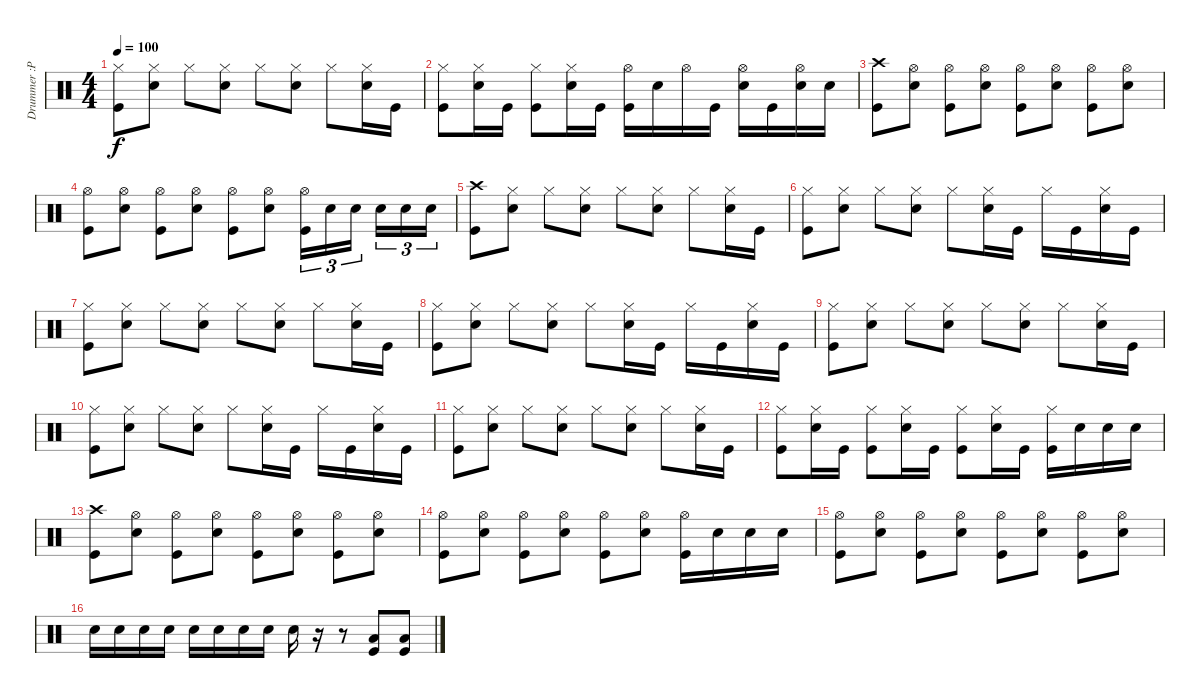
\track ("Drummer :P" "Drummer :P") {instrument percussion}
\staff {score}
\articulation defaults
\ts (4 4)
\tempo 100
\clef neutral
\ks c
("Hi-Hat (closed)" "Kick (hit)").8{dy f} ("Hi-Hat (closed)" "Electric Snare (hit)").8 "Hi-Hat (closed)".8 ("Hi-Hat (closed)" "Electric Snare (hit)").8 "Hi-Hat (closed)".8 ("Hi-Hat (closed)" "Electric Snare (hit)").8 "Hi-Hat (closed)".8 ("Hi-Hat (closed)" "Electric Snare (hit)").16 "Kick (hit)".16 |
("Hi-Hat (closed)" "Kick (hit)").8 ("Hi-Hat (closed)" "Electric Snare (hit)").16 "Kick (hit)".16 ("Hi-Hat (closed)" "Kick (hit)").8 ("Hi-Hat (closed)" "Electric Snare (hit)").16 "Kick (hit)".16 ("Hi-Hat (open)" "Kick (hit)").16 "Electric Snare (hit)".16 "Hi-Hat (open)".16 "Kick (hit)".16 ("Hi-Hat (open)" "Electric Snare (hit)").16 "Kick (hit)".16 ("Hi-Hat (open)" "Electric Snare (hit)").16 "Electric Snare (hit)".16 |
("Crash high (hit)" "Kick (hit)").8 ("Hi-Hat (open)" "Electric Snare (hit)").8 ("Hi-Hat (open)" "Kick (hit)").8 ("Hi-Hat (open)" "Electric Snare (hit)").8 ("Hi-Hat (open)" "Kick (hit)").8 ("Hi-Hat (open)" "Electric Snare (hit)").8 ("Hi-Hat (open)" "Kick (hit)").8 ("Hi-Hat (open)" "Electric Snare (hit)").8 |
("Hi-Hat (open)" "Kick (hit)").8 ("Hi-Hat (open)" "Electric Snare (hit)").8 ("Hi-Hat (open)" "Kick (hit)").8 ("Hi-Hat (open)" "Electric Snare (hit)").8 ("Hi-Hat (open)" "Kick (hit)").8 ("Hi-Hat (open)" "Electric Snare (hit)").8 ("Hi-Hat (open)" "Kick (hit)").16{tu (3 2)} "Electric Snare (hit)".16{tu (3 2)} "Electric Snare (hit)".16{tu (3 2)} "Electric Snare (hit)".16{tu (3 2)} "Electric Snare (hit)".16{tu (3 2)} "Electric Snare (hit)".16{tu (3 2)} |
("Crash high (hit)" "Kick (hit)").8 ("Hi-Hat (closed)" "Electric Snare (hit)").8 "Hi-Hat (closed)".8 ("Hi-Hat (closed)" "Electric Snare (hit)").8 "Hi-Hat (closed)".8 ("Hi-Hat (closed)" "Electric Snare (hit)").8 "Hi-Hat (closed)".8 ("Hi-Hat (closed)" "Electric Snare (hit)").16 "Kick (hit)".16 |
("Hi-Hat (closed)" "Kick (hit)").8 ("Hi-Hat (closed)" "Electric Snare (hit)").8 "Hi-Hat (closed)".8 ("Hi-Hat (closed)" "Electric Snare (hit)").8 "Hi-Hat (closed)".8 ("Hi-Hat (closed)" "Electric Snare (hit)").16 "Kick (hit)".16 "Hi-Hat (closed)".16 "Kick (hit)".16 ("Hi-Hat (closed)" "Electric Snare (hit)").16 "Kick (hit)".16 |
("Hi-Hat (closed)" "Kick (hit)").8 ("Hi-Hat (closed)" "Electric Snare (hit)").8 "Hi-Hat (closed)".8 ("Hi-Hat (closed)" "Electric Snare (hit)").8 "Hi-Hat (closed)".8 ("Hi-Hat (closed)" "Electric Snare (hit)").8 "Hi-Hat (closed)".8 ("Hi-Hat (closed)" "Electric Snare (hit)").16 "Kick (hit)".16 |
("Hi-Hat (closed)" "Kick (hit)").8 ("Hi-Hat (closed)" "Electric Snare (hit)").8 "Hi-Hat (closed)".8 ("Hi-Hat (closed)" "Electric Snare (hit)").8 "Hi-Hat (closed)".8 ("Hi-Hat (closed)" "Electric Snare (hit)").16 "Kick (hit)".16 "Hi-Hat (closed)".16 "Kick (hit)".16 ("Hi-Hat (closed)" "Electric Snare (hit)").16 "Kick (hit)".16 |
("Hi-Hat (closed)" "Kick (hit)").8 ("Hi-Hat (closed)" "Electric Snare (hit)").8 "Hi-Hat (closed)".8 ("Hi-Hat (closed)" "Electric Snare (hit)").8 "Hi-Hat (closed)".8 ("Hi-Hat (closed)" "Electric Snare (hit)").8 "Hi-Hat (closed)".8 ("Hi-Hat (closed)" "Electric Snare (hit)").16 "Kick (hit)".16 |
("Hi-Hat (closed)" "Kick (hit)").8 ("Hi-Hat (closed)" "Electric Snare (hit)").8 "Hi-Hat (closed)".8 ("Hi-Hat (closed)" "Electric Snare (hit)").8 "Hi-Hat (closed)".8 ("Hi-Hat (closed)" "Electric Snare (hit)").16 "Kick (hit)".16 "Hi-Hat (closed)".16 "Kick (hit)".16 ("Hi-Hat (closed)" "Electric Snare (hit)").16 "Kick (hit)".16 |
("Hi-Hat (closed)" "Kick (hit)").8 ("Hi-Hat (closed)" "Electric Snare (hit)").8 "Hi-Hat (closed)".8 ("Hi-Hat (closed)" "Electric Snare (hit)").8 "Hi-Hat (closed)".8 ("Hi-Hat (closed)" "Electric Snare (hit)").8 "Hi-Hat (closed)".8 ("Hi-Hat (closed)" "Electric Snare (hit)").16 "Kick (hit)".16 |
("Hi-Hat (closed)" "Kick (hit)").8 ("Hi-Hat (closed)" "Electric Snare (hit)").16 "Kick (hit)".16 ("Hi-Hat (closed)" "Kick (hit)").8 ("Hi-Hat (closed)" "Electric Snare (hit)").16 "Kick (hit)".16 ("Hi-Hat (closed)" "Kick (hit)").8 ("Hi-Hat (closed)" "Electric Snare (hit)").16 "Kick (hit)".16 ("Hi-Hat (closed)" "Kick (hit)").16 "Electric Snare (hit)".16 "Electric Snare (hit)".16 "Electric Snare (hit)".16 |
("Crash high (hit)" "Kick (hit)").8 ("Hi-Hat (open)" "Electric Snare (hit)").8 ("Hi-Hat (open)" "Kick (hit)").8 ("Hi-Hat (open)" "Electric Snare (hit)").8 ("Hi-Hat (open)" "Kick (hit)").8 ("Hi-Hat (open)" "Electric Snare (hit)").8 ("Hi-Hat (open)" "Kick (hit)").8 ("Hi-Hat (open)" "Electric Snare (hit)").8 |
("Hi-Hat (open)" "Kick (hit)").8 ("Hi-Hat (open)" "Electric Snare (hit)").8 ("Hi-Hat (open)" "Kick (hit)").8 ("Hi-Hat (open)" "Electric Snare (hit)").8 ("Hi-Hat (open)" "Kick (hit)").8 ("Hi-Hat (open)" "Electric Snare (hit)").8 ("Hi-Hat (open)" "Kick (hit)").16 "Electric Snare (hit)".16 "Electric Snare (hit)".16 "Electric Snare (hit)".16 |
("Hi-Hat (open)" "Kick (hit)").8 ("Hi-Hat (open)" "Electric Snare (hit)").8 ("Hi-Hat (open)" "Kick (hit)").8 ("Hi-Hat (open)" "Electric Snare (hit)").8 ("Hi-Hat (open)" "Kick (hit)").8 ("Hi-Hat (open)" "Electric Snare (hit)").8 ("Hi-Hat (open)" "Kick (hit)").8 ("Hi-Hat (open)" "Electric Snare (hit)").8 |
"Electric Snare (hit)".16 "Electric Snare (hit)".16 "Electric Snare (hit)".16 "Electric Snare (hit)".16 "Electric Snare (hit)".16 "Electric Snare (hit)".16 "Electric Snare (hit)".16 "Electric Snare (hit)".16 "Electric Snare (hit)".16 r.16 r.8 ("Low Tom (hit)" "Kick (hit)").8 ("Low Floor Tom (hit)" "Kick (hit)").8
